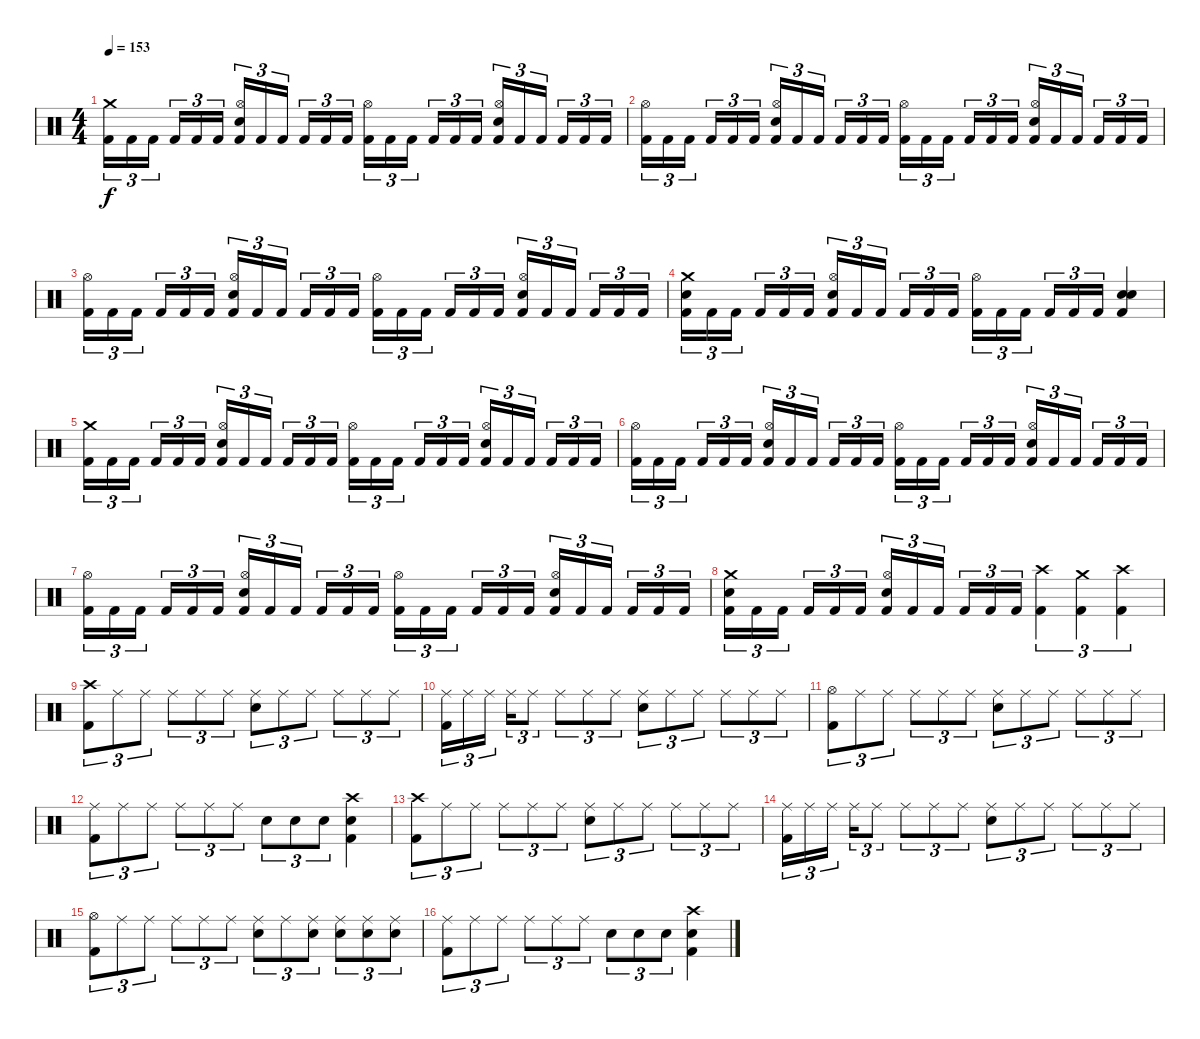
\track "" {instrument percussion}
\staff {score}
\articulation defaults
\ts (4 4)
\tempo 153
\clef neutral
\ks c
("Crash medium (hit)" "Kick (hit) 2").16{tu (3 2) dy f} "Kick (hit) 2".16{tu (3 2)} "Kick (hit) 2".16{tu (3 2)} "Kick (hit) 2".16{tu (3 2)} "Kick (hit) 2".16{tu (3 2)} "Kick (hit) 2".16{tu (3 2)} ("Hi-Hat (open)" "Electric Snare (hit)" "Kick (hit) 2").16{tu (3 2)} "Kick (hit) 2".16{tu (3 2)} "Kick (hit) 2".16{tu (3 2)} "Kick (hit) 2".16{tu (3 2)} "Kick (hit) 2".16{tu (3 2)} "Kick (hit) 2".16{tu (3 2)} ("Hi-Hat (open)" "Kick (hit) 2").16{tu (3 2)} "Kick (hit) 2".16{tu (3 2)} "Kick (hit) 2".16{tu (3 2)} "Kick (hit) 2".16{tu (3 2)} "Kick (hit) 2".16{tu (3 2)} "Kick (hit) 2".16{tu (3 2)} ("Hi-Hat (open)" "Electric Snare (hit)" "Kick (hit) 2").16{tu (3 2)} "Kick (hit) 2".16{tu (3 2)} "Kick (hit) 2".16{tu (3 2)} "Kick (hit) 2".16{tu (3 2)} "Kick (hit) 2".16{tu (3 2)} "Kick (hit) 2".16{tu (3 2)} |
("Hi-Hat (open)" "Kick (hit) 2").16{tu (3 2)} "Kick (hit) 2".16{tu (3 2)} "Kick (hit) 2".16{tu (3 2)} "Kick (hit) 2".16{tu (3 2)} "Kick (hit) 2".16{tu (3 2)} "Kick (hit) 2".16{tu (3 2)} ("Hi-Hat (open)" "Electric Snare (hit)" "Kick (hit) 2").16{tu (3 2)} "Kick (hit) 2".16{tu (3 2)} "Kick (hit) 2".16{tu (3 2)} "Kick (hit) 2".16{tu (3 2)} "Kick (hit) 2".16{tu (3 2)} "Kick (hit) 2".16{tu (3 2)} ("Hi-Hat (open)" "Kick (hit) 2").16{tu (3 2)} "Kick (hit) 2".16{tu (3 2)} "Kick (hit) 2".16{tu (3 2)} "Kick (hit) 2".16{tu (3 2)} "Kick (hit) 2".16{tu (3 2)} "Kick (hit) 2".16{tu (3 2)} ("Hi-Hat (open)" "Electric Snare (hit)" "Kick (hit) 2").16{tu (3 2)} "Kick (hit) 2".16{tu (3 2)} "Kick (hit) 2".16{tu (3 2)} "Kick (hit) 2".16{tu (3 2)} "Kick (hit) 2".16{tu (3 2)} "Kick (hit) 2".16{tu (3 2)} |
("Hi-Hat (open)" "Kick (hit) 2").16{tu (3 2)} "Kick (hit) 2".16{tu (3 2)} "Kick (hit) 2".16{tu (3 2)} "Kick (hit) 2".16{tu (3 2)} "Kick (hit) 2".16{tu (3 2)} "Kick (hit) 2".16{tu (3 2)} ("Hi-Hat (open)" "Electric Snare (hit)" "Kick (hit) 2").16{tu (3 2)} "Kick (hit) 2".16{tu (3 2)} "Kick (hit) 2".16{tu (3 2)} "Kick (hit) 2".16{tu (3 2)} "Kick (hit) 2".16{tu (3 2)} "Kick (hit) 2".16{tu (3 2)} ("Hi-Hat (open)" "Kick (hit) 2").16{tu (3 2)} "Kick (hit) 2".16{tu (3 2)} "Kick (hit) 2".16{tu (3 2)} "Kick (hit) 2".16{tu (3 2)} "Kick (hit) 2".16{tu (3 2)} "Kick (hit) 2".16{tu (3 2)} ("Hi-Hat (open)" "Electric Snare (hit)" "Kick (hit) 2").16{tu (3 2)} "Kick (hit) 2".16{tu (3 2)} "Kick (hit) 2".16{tu (3 2)} "Kick (hit) 2".16{tu (3 2)} "Kick (hit) 2".16{tu (3 2)} "Kick (hit) 2".16{tu (3 2)} |
("Crash medium (hit)" "Electric Snare (hit)" "Kick (hit) 2").16{tu (3 2)} "Kick (hit) 2".16{tu (3 2)} "Kick (hit) 2".16{tu (3 2)} "Kick (hit) 2".16{tu (3 2)} "Kick (hit) 2".16{tu (3 2)} "Kick (hit) 2".16{tu (3 2)} ("Hi-Hat (open)" "Electric Snare (hit)" "Kick (hit) 2").16{tu (3 2)} "Kick (hit) 2".16{tu (3 2)} "Kick (hit) 2".16{tu (3 2)} "Kick (hit) 2".16{tu (3 2)} "Kick (hit) 2".16{tu (3 2)} "Kick (hit) 2".16{tu (3 2)} ("Hi-Hat (open)" "Kick (hit) 2").16{tu (3 2)} "Kick (hit) 2".16{tu (3 2)} "Kick (hit) 2".16{tu (3 2)} "Kick (hit) 2".16{tu (3 2)} "Kick (hit) 2".16{tu (3 2)} "Kick (hit) 2".16{tu (3 2)} ("Electric Snare (hit)" "Electric Snare (hit)" "Kick (hit) 2").4 |
("Crash medium (hit)" "Kick (hit) 2").16{tu (3 2)} "Kick (hit) 2".16{tu (3 2)} "Kick (hit) 2".16{tu (3 2)} "Kick (hit) 2".16{tu (3 2)} "Kick (hit) 2".16{tu (3 2)} "Kick (hit) 2".16{tu (3 2)} ("Hi-Hat (open)" "Electric Snare (hit)" "Kick (hit) 2").16{tu (3 2)} "Kick (hit) 2".16{tu (3 2)} "Kick (hit) 2".16{tu (3 2)} "Kick (hit) 2".16{tu (3 2)} "Kick (hit) 2".16{tu (3 2)} "Kick (hit) 2".16{tu (3 2)} ("Hi-Hat (open)" "Kick (hit) 2").16{tu (3 2)} "Kick (hit) 2".16{tu (3 2)} "Kick (hit) 2".16{tu (3 2)} "Kick (hit) 2".16{tu (3 2)} "Kick (hit) 2".16{tu (3 2)} "Kick (hit) 2".16{tu (3 2)} ("Hi-Hat (open)" "Electric Snare (hit)" "Kick (hit) 2").16{tu (3 2)} "Kick (hit) 2".16{tu (3 2)} "Kick (hit) 2".16{tu (3 2)} "Kick (hit) 2".16{tu (3 2)} "Kick (hit) 2".16{tu (3 2)} "Kick (hit) 2".16{tu (3 2)} |
("Hi-Hat (open)" "Kick (hit) 2").16{tu (3 2)} "Kick (hit) 2".16{tu (3 2)} "Kick (hit) 2".16{tu (3 2)} "Kick (hit) 2".16{tu (3 2)} "Kick (hit) 2".16{tu (3 2)} "Kick (hit) 2".16{tu (3 2)} ("Hi-Hat (open)" "Electric Snare (hit)" "Kick (hit) 2").16{tu (3 2)} "Kick (hit) 2".16{tu (3 2)} "Kick (hit) 2".16{tu (3 2)} "Kick (hit) 2".16{tu (3 2)} "Kick (hit) 2".16{tu (3 2)} "Kick (hit) 2".16{tu (3 2)} ("Hi-Hat (open)" "Kick (hit) 2").16{tu (3 2)} "Kick (hit) 2".16{tu (3 2)} "Kick (hit) 2".16{tu (3 2)} "Kick (hit) 2".16{tu (3 2)} "Kick (hit) 2".16{tu (3 2)} "Kick (hit) 2".16{tu (3 2)} ("Hi-Hat (open)" "Electric Snare (hit)" "Kick (hit) 2").16{tu (3 2)} "Kick (hit) 2".16{tu (3 2)} "Kick (hit) 2".16{tu (3 2)} "Kick (hit) 2".16{tu (3 2)} "Kick (hit) 2".16{tu (3 2)} "Kick (hit) 2".16{tu (3 2)} |
("Hi-Hat (open)" "Kick (hit) 2").16{tu (3 2)} "Kick (hit) 2".16{tu (3 2)} "Kick (hit) 2".16{tu (3 2)} "Kick (hit) 2".16{tu (3 2)} "Kick (hit) 2".16{tu (3 2)} "Kick (hit) 2".16{tu (3 2)} ("Hi-Hat (open)" "Electric Snare (hit)" "Kick (hit) 2").16{tu (3 2)} "Kick (hit) 2".16{tu (3 2)} "Kick (hit) 2".16{tu (3 2)} "Kick (hit) 2".16{tu (3 2)} "Kick (hit) 2".16{tu (3 2)} "Kick (hit) 2".16{tu (3 2)} ("Hi-Hat (open)" "Kick (hit) 2").16{tu (3 2)} "Kick (hit) 2".16{tu (3 2)} "Kick (hit) 2".16{tu (3 2)} "Kick (hit) 2".16{tu (3 2)} "Kick (hit) 2".16{tu (3 2)} "Kick (hit) 2".16{tu (3 2)} ("Hi-Hat (open)" "Electric Snare (hit)" "Kick (hit) 2").16{tu (3 2)} "Kick (hit) 2".16{tu (3 2)} "Kick (hit) 2".16{tu (3 2)} "Kick (hit) 2".16{tu (3 2)} "Kick (hit) 2".16{tu (3 2)} "Kick (hit) 2".16{tu (3 2)} |
("Crash medium (hit)" "Electric Snare (hit)" "Kick (hit) 2").16{tu (3 2)} "Kick (hit) 2".16{tu (3 2)} "Kick (hit) 2".16{tu (3 2)} "Kick (hit) 2".16{tu (3 2)} "Kick (hit) 2".16{tu (3 2)} "Kick (hit) 2".16{tu (3 2)} ("Hi-Hat (open)" "Electric Snare (hit)" "Kick (hit) 2").16{tu (3 2)} "Kick (hit) 2".16{tu (3 2)} "Kick (hit) 2".16{tu (3 2)} "Kick (hit) 2".16{tu (3 2)} "Kick (hit) 2".16{tu (3 2)} "Kick (hit) 2".16{tu (3 2)} ("Crash high (hit)" "Kick (hit) 2").4{tu (3 2)} ("Crash medium (hit)" "Kick (hit) 2").4{tu (3 2)} ("Crash high (hit)" "Kick (hit) 2").4{tu (3 2)} |
\section ("" "")
("Crash high (hit)" "Kick (hit) 2").8{tu (3 2)} "Ride (middle)".8{tu (3 2)} "Ride (middle)".8{tu (3 2)} "Ride (middle)".8{tu (3 2)} "Ride (middle)".8{tu (3 2)} "Ride (middle)".8{tu (3 2)} ("Ride (middle)" "Electric Snare (hit)").8{tu (3 2)} "Ride (middle)".8{tu (3 2)} "Ride (middle)".8{tu (3 2)} "Ride (middle)".8{tu (3 2)} "Ride (middle)".8{tu (3 2)} "Ride (middle)".8{tu (3 2)} |
("Ride (middle)" "Kick (hit) 2").16{tu (3 2)} "Ride (middle)".16{tu (3 2)} "Ride (middle)".16{tu (3 2)} "Ride (middle)".16{tu (3 2)} "Ride (middle)".8{tu (3 2)} "Ride (middle)".8{tu (3 2)} "Ride (middle)".8{tu (3 2)} "Ride (middle)".8{tu (3 2)} ("Ride (middle)" "Electric Snare (hit)").8{tu (3 2)} "Ride (middle)".8{tu (3 2)} "Ride (middle)".8{tu (3 2)} "Ride (middle)".8{tu (3 2)} "Ride (middle)".8{tu (3 2)} "Ride (middle)".8{tu (3 2)} |
("Hi-Hat (open)" "Kick (hit) 2").8{tu (3 2)} "Ride (middle)".8{tu (3 2)} "Ride (middle)".8{tu (3 2)} "Ride (middle)".8{tu (3 2)} "Ride (middle)".8{tu (3 2)} "Ride (middle)".8{tu (3 2)} ("Ride (middle)" "Electric Snare (hit)").8{tu (3 2)} "Ride (middle)".8{tu (3 2)} "Ride (middle)".8{tu (3 2)} "Ride (middle)".8{tu (3 2)} "Ride (middle)".8{tu (3 2)} "Ride (middle)".8{tu (3 2)} |
("Ride (middle)" "Kick (hit) 2").8{tu (3 2)} "Ride (middle)".8{tu (3 2)} "Ride (middle)".8{tu (3 2)} "Ride (middle)".8{tu (3 2)} "Ride (middle)".8{tu (3 2)} "Ride (middle)".8{tu (3 2)} "Electric Snare (hit)".8{tu (3 2)} "Electric Snare (hit)".8{tu (3 2)} "Electric Snare (hit)".8{tu (3 2)} ("Crash high (hit)" "Electric Snare (hit)" "Kick (hit) 2").4 |
("Crash high (hit)" "Kick (hit) 2").8{tu (3 2)} "Ride (middle)".8{tu (3 2)} "Ride (middle)".8{tu (3 2)} "Ride (middle)".8{tu (3 2)} "Ride (middle)".8{tu (3 2)} "Ride (middle)".8{tu (3 2)} ("Ride (middle)" "Electric Snare (hit)").8{tu (3 2)} "Ride (middle)".8{tu (3 2)} "Ride (middle)".8{tu (3 2)} "Ride (middle)".8{tu (3 2)} "Ride (middle)".8{tu (3 2)} "Ride (middle)".8{tu (3 2)} |
("Ride (middle)" "Kick (hit) 2").16{tu (3 2)} "Ride (middle)".16{tu (3 2)} "Ride (middle)".16{tu (3 2)} "Ride (middle)".16{tu (3 2)} "Ride (middle)".8{tu (3 2)} "Ride (middle)".8{tu (3 2)} "Ride (middle)".8{tu (3 2)} "Ride (middle)".8{tu (3 2)} ("Ride (middle)" "Electric Snare (hit)").8{tu (3 2)} "Ride (middle)".8{tu (3 2)} "Ride (middle)".8{tu (3 2)} "Ride (middle)".8{tu (3 2)} "Ride (middle)".8{tu (3 2)} "Ride (middle)".8{tu (3 2)} |
("Hi-Hat (open)" "Kick (hit) 2").8{tu (3 2)} "Ride (middle)".8{tu (3 2)} "Ride (middle)".8{tu (3 2)} "Ride (middle)".8{tu (3 2)} "Ride (middle)".8{tu (3 2)} "Ride (middle)".8{tu (3 2)} ("Ride (middle)" "Electric Snare (hit)").8{tu (3 2)} "Ride (middle)".8{tu (3 2)} ("Ride (middle)" "Electric Snare (hit)").8{tu (3 2)} ("Ride (middle)" "Electric Snare (hit)").8{tu (3 2)} ("Ride (middle)" "Electric Snare (hit)").8{tu (3 2)} ("Ride (middle)" "Electric Snare (hit)").8{tu (3 2)} |
("Ride (middle)" "Kick (hit) 2").8{tu (3 2)} "Ride (middle)".8{tu (3 2)} "Ride (middle)".8{tu (3 2)} "Ride (middle)".8{tu (3 2)} "Ride (middle)".8{tu (3 2)} "Ride (middle)".8{tu (3 2)} "Electric Snare (hit)".8{tu (3 2)} "Electric Snare (hit)".8{tu (3 2)} "Electric Snare (hit)".8{tu (3 2)} ("Crash high (hit)" "Electric Snare (hit)" "Kick (hit) 2").4
